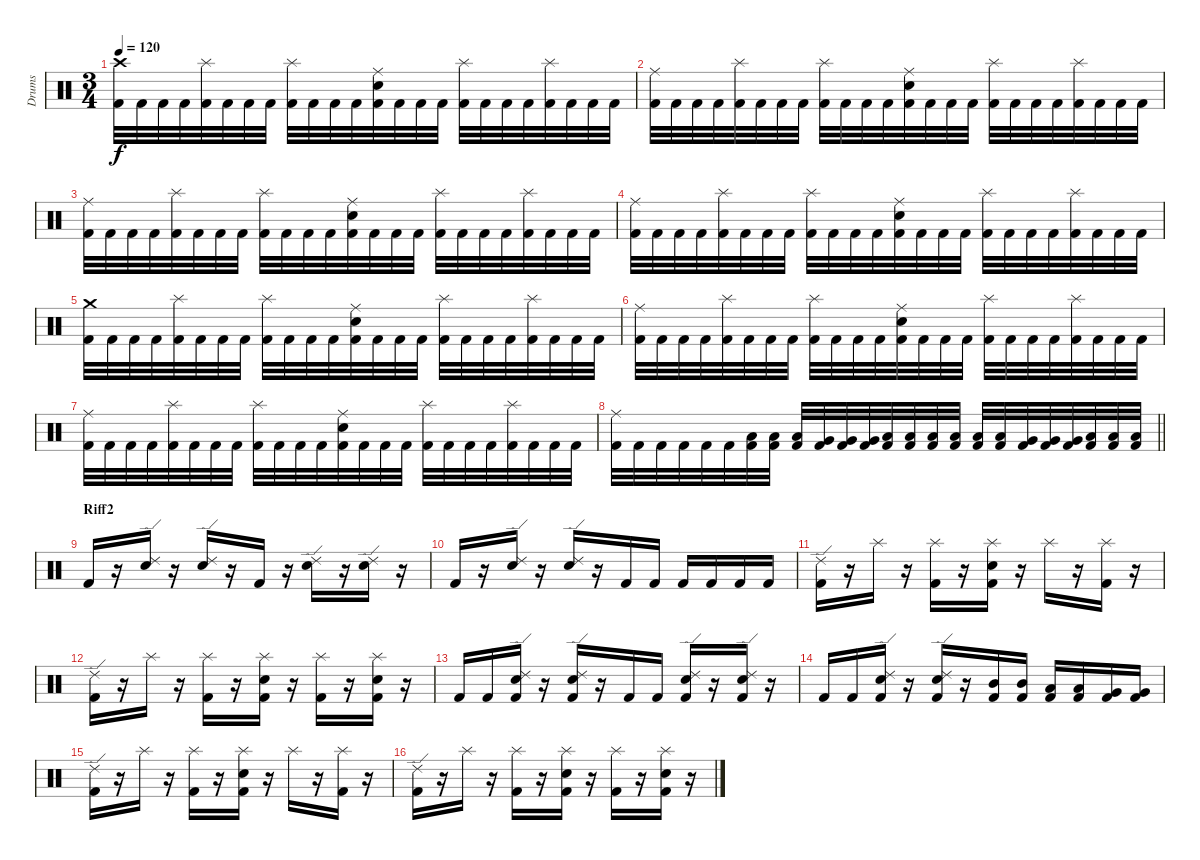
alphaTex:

\track ("Drums" "Drums") {instrument percussion}
\staff {score}
\articulation defaults
\ts (3 4)
\tempo 120
\clef neutral
\ks c
("Kick (hit) 2" "Crash high (hit)").32{dy f} "Kick (hit) 2".32 "Kick (hit) 2".32 "Kick (hit) 2".32 ("Kick (hit) 2" "Splash (hit)").32 "Kick (hit) 2".32 "Kick (hit) 2".32 "Kick (hit) 2".32 ("Kick (hit) 2" "Splash (hit)").32 "Kick (hit) 2".32 "Kick (hit) 2".32 "Kick (hit) 2".32 ("Kick (hit) 2" "Ride (middle)" "Snare (hit) 2").32 "Kick (hit) 2".32 "Kick (hit) 2".32 "Kick (hit) 2".32 ("Kick (hit) 2" "Splash (hit)").32 "Kick (hit) 2".32 "Kick (hit) 2".32 "Kick (hit) 2".32 ("Kick (hit) 2" "Splash (hit)").32 "Kick (hit) 2".32 "Kick (hit) 2".32 "Kick (hit) 2".32 |
("Kick (hit) 2" "Ride (middle)").32 "Kick (hit) 2".32 "Kick (hit) 2".32 "Kick (hit) 2".32 ("Kick (hit) 2" "Splash (hit)").32 "Kick (hit) 2".32 "Kick (hit) 2".32 "Kick (hit) 2".32 ("Kick (hit) 2" "Splash (hit)").32 "Kick (hit) 2".32 "Kick (hit) 2".32 "Kick (hit) 2".32 ("Kick (hit) 2" "Ride (middle)" "Snare (hit) 2").32 "Kick (hit) 2".32 "Kick (hit) 2".32 "Kick (hit) 2".32 ("Kick (hit) 2" "Splash (hit)").32 "Kick (hit) 2".32 "Kick (hit) 2".32 "Kick (hit) 2".32 ("Kick (hit) 2" "Splash (hit)").32 "Kick (hit) 2".32 "Kick (hit) 2".32 "Kick (hit) 2".32 |
("Kick (hit) 2" "Ride (middle)").32 "Kick (hit) 2".32 "Kick (hit) 2".32 "Kick (hit) 2".32 ("Kick (hit) 2" "Splash (hit)").32 "Kick (hit) 2".32 "Kick (hit) 2".32 "Kick (hit) 2".32 ("Kick (hit) 2" "Splash (hit)").32 "Kick (hit) 2".32 "Kick (hit) 2".32 "Kick (hit) 2".32 ("Kick (hit) 2" "Ride (middle)" "Snare (hit) 2").32 "Kick (hit) 2".32 "Kick (hit) 2".32 "Kick (hit) 2".32 ("Kick (hit) 2" "Splash (hit)").32 "Kick (hit) 2".32 "Kick (hit) 2".32 "Kick (hit) 2".32 ("Kick (hit) 2" "Splash (hit)").32 "Kick (hit) 2".32 "Kick (hit) 2".32 "Kick (hit) 2".32 |
("Kick (hit) 2" "Ride (middle)").32 "Kick (hit) 2".32 "Kick (hit) 2".32 "Kick (hit) 2".32 ("Kick (hit) 2" "Splash (hit)").32 "Kick (hit) 2".32 "Kick (hit) 2".32 "Kick (hit) 2".32 ("Kick (hit) 2" "Splash (hit)").32 "Kick (hit) 2".32 "Kick (hit) 2".32 "Kick (hit) 2".32 ("Kick (hit) 2" "Ride (middle)" "Snare (hit) 2").32 "Kick (hit) 2".32 "Kick (hit) 2".32 "Kick (hit) 2".32 ("Kick (hit) 2" "Splash (hit)").32 "Kick (hit) 2".32 "Kick (hit) 2".32 "Kick (hit) 2".32 ("Kick (hit) 2" "Splash (hit)").32 "Kick (hit) 2".32 "Kick (hit) 2".32 "Kick (hit) 2".32 |
("Kick (hit) 2" "Crash medium (hit)").32 "Kick (hit) 2".32 "Kick (hit) 2".32 "Kick (hit) 2".32 ("Kick (hit) 2" "Splash (hit)").32 "Kick (hit) 2".32 "Kick (hit) 2".32 "Kick (hit) 2".32 ("Kick (hit) 2" "Splash (hit)").32 "Kick (hit) 2".32 "Kick (hit) 2".32 "Kick (hit) 2".32 ("Kick (hit) 2" "Ride (middle)" "Snare (hit) 2").32 "Kick (hit) 2".32 "Kick (hit) 2".32 "Kick (hit) 2".32 ("Kick (hit) 2" "Splash (hit)").32 "Kick (hit) 2".32 "Kick (hit) 2".32 "Kick (hit) 2".32 ("Kick (hit) 2" "Splash (hit)").32 "Kick (hit) 2".32 "Kick (hit) 2".32 "Kick (hit) 2".32 |
("Kick (hit) 2" "Ride (middle)").32 "Kick (hit) 2".32 "Kick (hit) 2".32 "Kick (hit) 2".32 ("Kick (hit) 2" "Splash (hit)").32 "Kick (hit) 2".32 "Kick (hit) 2".32 "Kick (hit) 2".32 ("Kick (hit) 2" "Splash (hit)").32 "Kick (hit) 2".32 "Kick (hit) 2".32 "Kick (hit) 2".32 ("Kick (hit) 2" "Ride (middle)" "Snare (hit) 2").32 "Kick (hit) 2".32 "Kick (hit) 2".32 "Kick (hit) 2".32 ("Kick (hit) 2" "Splash (hit)").32 "Kick (hit) 2".32 "Kick (hit) 2".32 "Kick (hit) 2".32 ("Kick (hit) 2" "Splash (hit)").32 "Kick (hit) 2".32 "Kick (hit) 2".32 "Kick (hit) 2".32 |
("Kick (hit) 2" "Ride (middle)").32 "Kick (hit) 2".32 "Kick (hit) 2".32 "Kick (hit) 2".32 ("Kick (hit) 2" "Splash (hit)").32 "Kick (hit) 2".32 "Kick (hit) 2".32 "Kick (hit) 2".32 ("Kick (hit) 2" "Splash (hit)").32 "Kick (hit) 2".32 "Kick (hit) 2".32 "Kick (hit) 2".32 ("Kick (hit) 2" "Ride (middle)" "Snare (hit) 2").32 "Kick (hit) 2".32 "Kick (hit) 2".32 "Kick (hit) 2".32 ("Kick (hit) 2" "Splash (hit)").32 "Kick (hit) 2".32 "Kick (hit) 2".32 "Kick (hit) 2".32 ("Kick (hit) 2" "Splash (hit)").32 "Kick (hit) 2".32 "Kick (hit) 2".32 "Kick (hit) 2".32 |
\barLineRight lightlight
("Kick (hit) 2" "Ride (middle)").32 "Kick (hit) 2".32 "Kick (hit) 2".32 "Kick (hit) 2".32 "Kick (hit) 2".32 "Kick (hit) 2".32 ("Kick (hit) 2" "Low Tom (hit)").32 ("Kick (hit) 2" "Low Tom (hit)").32 ("Kick (hit) 2" "Low Tom (hit)").32 ("Kick (hit) 2" "Very Low Tom (hit)").32 ("Kick (hit) 2" "Very Low Tom (hit)").32 ("Kick (hit) 2" "Very Low Tom (hit)").32 ("Kick (hit) 2" "Low Floor Tom (hit)").32 ("Kick (hit) 2" "Low Floor Tom (hit)").32 ("Kick (hit) 2" "Low Floor Tom (hit)").32 ("Kick (hit) 2" "Low Tom (hit)").32 ("Kick (hit) 2" "Low Tom (hit)").32 ("Kick (hit) 2" "Low Tom (hit)").32 ("Kick (hit) 2" "Very Low Tom (hit)").32 ("Kick (hit) 2" "Very Low Tom (hit)").32 ("Kick (hit) 2" "Very Low Tom (hit)").32 ("Kick (hit) 2" "Low Floor Tom (hit)").32 ("Kick (hit) 2" "Low Floor Tom (hit)").32 ("Kick (hit) 2" "Low Floor Tom (hit)").32 |
\section ("" "Riff2")
"Kick (hit) 2".16 r.16 ("Snare (hit) 2" "Ride (edge) 2").16 r.16 ("Snare (hit) 2" "Ride (edge) 2").16 r.16 "Kick (hit) 2".16 r.16 ("Snare (hit) 2" "Ride (edge) 2").16 r.16 ("Snare (hit) 2" "Ride (edge) 2").16 r.16 |
"Kick (hit) 2".16 r.16 ("Snare (hit) 2" "Ride (edge) 2").16 r.16 ("Snare (hit) 2" "Ride (edge) 2").16 r.16 "Kick (hit) 2".16 "Kick (hit) 2".16 "Kick (hit) 2".16 "Kick (hit) 2".16 "Kick (hit) 2".16 "Kick (hit) 2".16 |
("Kick (hit) 2" "Ride (edge) 2").16 r.16 "Splash (hit)".16 r.16 ("Kick (hit) 2" "Splash (hit)").16 r.16 ("Kick (hit) 2" "Splash (hit)" "Snare (hit) 2").16 r.16 "Splash (hit)".16 r.16 ("Kick (hit) 2" "Splash (hit)").16 r.16 |
("Kick (hit) 2" "Ride (edge) 2").16 r.16 "Splash (hit)".16 r.16 ("Kick (hit) 2" "Splash (hit)").16 r.16 ("Kick (hit) 2" "Splash (hit)" "Snare (hit) 2").16 r.16 ("Kick (hit) 2" "Splash (hit)").16 r.16 ("Kick (hit) 2" "Splash (hit)" "Snare (hit) 2").16 r.16 |
"Kick (hit) 2".16 "Kick (hit) 2".16 ("Kick (hit) 2" "Snare (hit) 2" "Ride (edge) 2").16 r.16 ("Kick (hit) 2" "Snare (hit) 2" "Ride (edge) 2").16 r.16 "Kick (hit) 2".16 "Kick (hit) 2".16 ("Kick (hit) 2" "Snare (hit) 2" "Ride (edge) 2").16 r.16 ("Kick (hit) 2" "Snare (hit) 2" "Ride (edge) 2").16 r.16 |
"Kick (hit) 2".16 "Kick (hit) 2".16 ("Kick (hit) 2" "Snare (hit) 2" "Ride (edge) 2").16 r.16 ("Kick (hit) 2" "Snare (hit) 2" "Ride (edge) 2").16 r.16 ("Kick (hit) 2" "Mid Tom (hit)").16 ("Kick (hit) 2" "Mid Tom (hit)").16 ("Kick (hit) 2" "Low Tom (hit)").16 ("Kick (hit) 2" "Low Tom (hit)").16 ("Kick (hit) 2" "Very Low Tom (hit)").16 ("Kick (hit) 2" "Very Low Tom (hit)").16 |
("Kick (hit) 2" "Ride (edge) 2").16 r.16 "Splash (hit)".16 r.16 ("Kick (hit) 2" "Splash (hit)").16 r.16 ("Kick (hit) 2" "Splash (hit)" "Snare (hit) 2").16 r.16 "Splash (hit)".16 r.16 ("Kick (hit) 2" "Splash (hit)").16 r.16 |
("Kick (hit) 2" "Ride (edge) 2").16 r.16 "Splash (hit)".16 r.16 ("Kick (hit) 2" "Splash (hit)").16 r.16 ("Kick (hit) 2" "Splash (hit)" "Snare (hit) 2").16 r.16 ("Kick (hit) 2" "Splash (hit)").16 r.16 ("Kick (hit) 2" "Splash (hit)" "Snare (hit) 2").16 r.16
